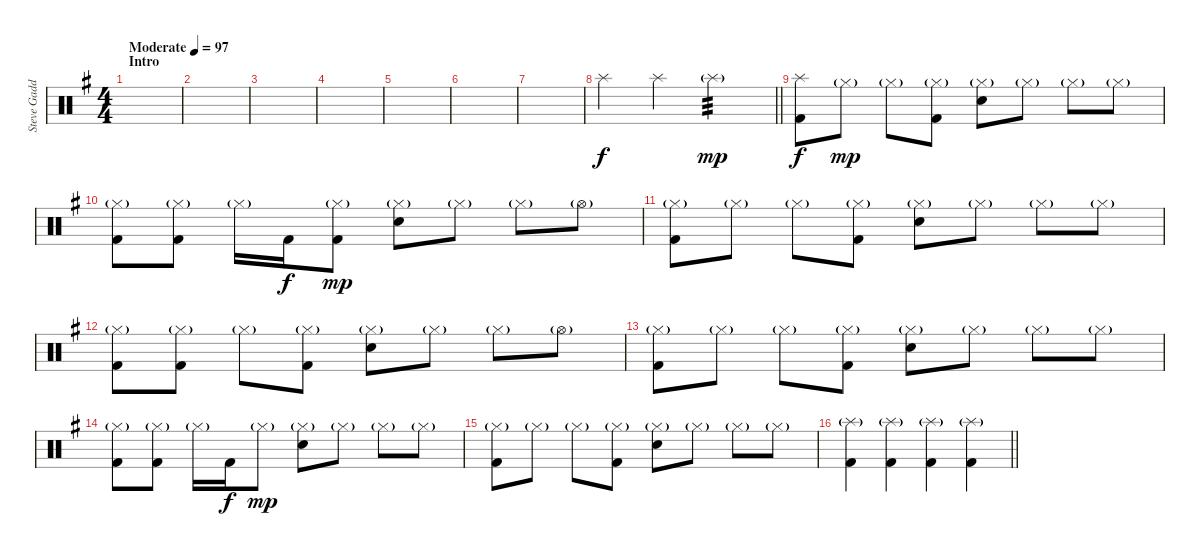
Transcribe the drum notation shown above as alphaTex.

\track ("Steve Gadd" "Steve Gadd") {instrument percussion}
\staff {score}
\articulation defaults
\ts (4 4)
\section ("" "Intro")
\tempo (97 "Moderate")
\clef neutral
\ks g
|
|
|
|
|
|
|
\barLineRight lightlight "Splash (hit)".4 "Splash (hit)".4 "Splash (hit)"{g}.2{tp 3 dy mp}
|
("Splash (hit)" "Kick (hit) 2").8{dy f} "Hi-Hat (closed)"{g}.8{dy mp} "Hi-Hat (closed)"{g}.8 ("Hi-Hat (closed)"{g} "Kick (hit) 2").8 ("Hi-Hat (closed)"{g} "Snare (hit) 2").8 "Hi-Hat (closed)"{g}.8 "Hi-Hat (closed)"{g}.8 "Hi-Hat (closed)"{g}.8 |
("Hi-Hat (closed)"{g} "Kick (hit) 2").8 ("Hi-Hat (closed)"{g} "Kick (hit) 2").8 "Hi-Hat (closed)"{g}.16 "Kick (hit) 2".16{dy f} ("Hi-Hat (closed)"{g} "Kick (hit) 2").8{dy mp} ("Hi-Hat (closed)"{g} "Snare (hit) 2").8 "Hi-Hat (closed)"{g}.8 "Hi-Hat (closed)"{g}.8 "Hi-Hat (open)"{g}.8 |
("Hi-Hat (closed)"{g} "Kick (hit) 2").8 "Hi-Hat (closed)"{g}.8 "Hi-Hat (closed)"{g}.8 ("Hi-Hat (closed)"{g} "Kick (hit) 2").8 ("Hi-Hat (closed)"{g} "Snare (hit) 2").8 "Hi-Hat (closed)"{g}.8 "Hi-Hat (closed)"{g}.8 "Hi-Hat (closed)"{g}.8 |
("Hi-Hat (closed)"{g} "Kick (hit) 2").8 ("Hi-Hat (closed)"{g} "Kick (hit) 2").8 "Hi-Hat (closed)"{g}.8 ("Hi-Hat (closed)"{g} "Kick (hit) 2").8 ("Hi-Hat (closed)"{g} "Snare (hit) 2").8 "Hi-Hat (closed)"{g}.8 "Hi-Hat (closed)"{g}.8 "Hi-Hat (open)"{g}.8 |
("Hi-Hat (closed)"{g} "Kick (hit) 2").8 "Hi-Hat (closed)"{g}.8 "Hi-Hat (closed)"{g}.8 ("Hi-Hat (closed)"{g} "Kick (hit) 2").8 ("Hi-Hat (closed)"{g} "Snare (hit) 2").8 "Hi-Hat (closed)"{g}.8 "Hi-Hat (closed)"{g}.8 "Hi-Hat (closed)"{g}.8 |
("Hi-Hat (closed)"{g} "Kick (hit) 2").8 ("Hi-Hat (closed)"{g} "Kick (hit) 2").8 "Hi-Hat (closed)"{g}.16 "Kick (hit) 2".16{dy f} "Hi-Hat (closed)"{g}.8{dy mp} ("Hi-Hat (closed)"{g} "Snare (hit) 2").8 "Hi-Hat (closed)"{g}.8 "Hi-Hat (closed)"{g}.8 "Hi-Hat (closed)"{g}.8 |
("Hi-Hat (closed)"{g} "Kick (hit) 2").8 "Hi-Hat (closed)"{g}.8 "Hi-Hat (closed)"{g}.8 ("Hi-Hat (closed)"{g} "Kick (hit) 2").8 ("Hi-Hat (closed)"{g} "Snare (hit) 2").8 "Hi-Hat (closed)"{g}.8 "Hi-Hat (closed)"{g}.8 "Hi-Hat (closed)"{g}.8 |
\barLineRight lightlight
("Splash (hit)"{g} "Kick (hit) 2").4 ("Splash (hit)"{g} "Kick (hit) 2").4 ("Splash (hit)"{g} "Kick (hit) 2").4 ("Splash (hit)"{g} "Kick (hit) 2").4
